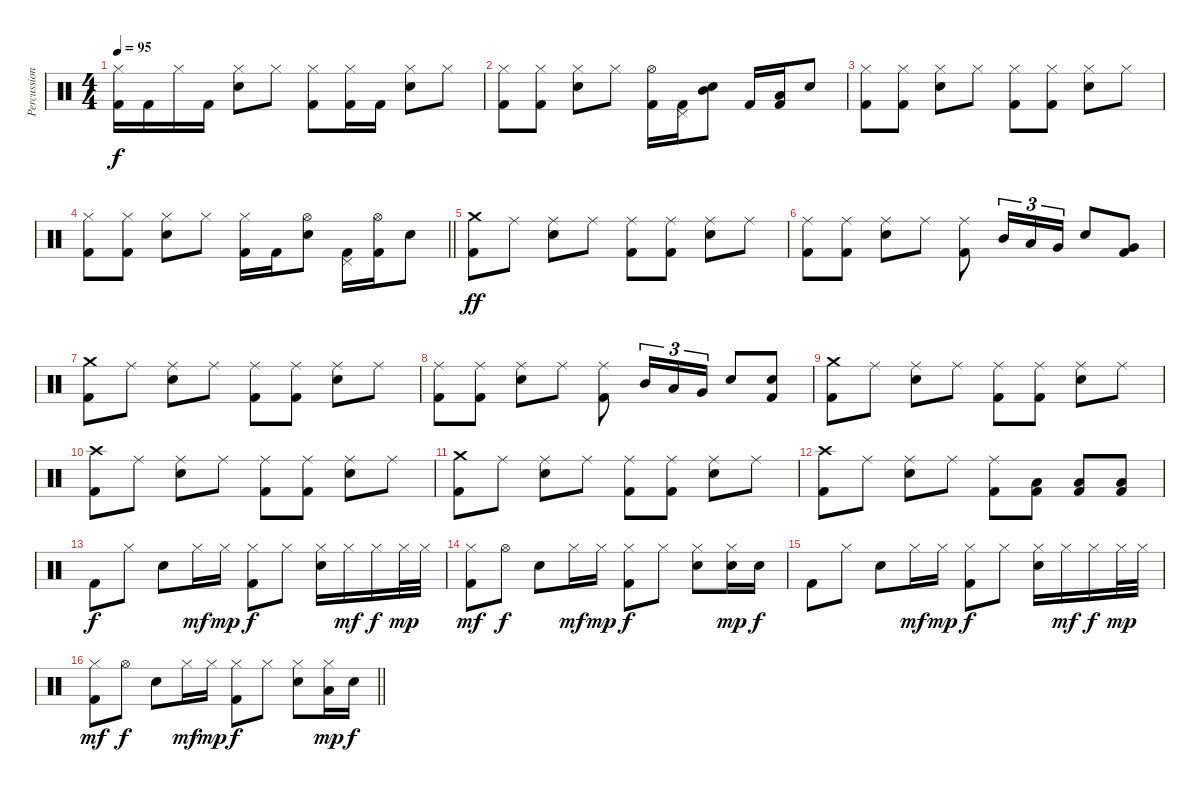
\track ("Percussion" "Percussion") {instrument percussion}
\staff {score}
\articulation defaults
\ts (4 4)
\tempo 95
\clef neutral
\ks c
("Hi-Hat (closed)" "Kick (hit) 2").16{dy f} "Kick (hit) 2".16 "Hi-Hat (closed)".16 "Kick (hit) 2".16 ("Hi-Hat (closed)" "Snare (hit) 2").8 "Hi-Hat (closed)".8 ("Hi-Hat (closed)" "Kick (hit) 2").8 ("Hi-Hat (closed)" "Kick (hit) 2").16 "Kick (hit) 2".16 ("Hi-Hat (closed)" "Snare (hit) 2").8 "Hi-Hat (closed)".8 |
("Hi-Hat (closed)" "Kick (hit) 2").8 ("Hi-Hat (closed)" "Kick (hit) 2").8 ("Hi-Hat (closed)" "Snare (hit) 2").8 "Hi-Hat (closed)".8 ("Hi-Hat (open)" "Kick (hit) 2").16 ("Pedal Hi-Hat (hit)" "Kick (hit) 2").16 ("Mid Tom (hit)" "Snare (hit) 2").8 "Kick (hit) 2".16 ("Low Tom (hit)" "Kick (hit) 2").16 "Snare (hit) 2".8 |
("Hi-Hat (closed)" "Kick (hit) 2").8 ("Hi-Hat (closed)" "Kick (hit) 2").8 ("Hi-Hat (closed)" "Snare (hit) 2").8 "Hi-Hat (closed)".8 ("Hi-Hat (closed)" "Kick (hit) 2").8 ("Hi-Hat (closed)" "Kick (hit) 2").8 ("Hi-Hat (closed)" "Snare (hit) 2").8 "Hi-Hat (closed)".8 |
\barLineRight lightlight
("Hi-Hat (closed)" "Kick (hit) 2").8 ("Hi-Hat (closed)" "Kick (hit) 2").8 ("Hi-Hat (closed)" "Snare (hit) 2").8 "Hi-Hat (closed)".8 ("Hi-Hat (closed)" "Kick (hit) 2").16 "Kick (hit) 2".16 ("Hi-Hat (open)" "Snare (hit) 2").8 ("Pedal Hi-Hat (hit)" "Kick (hit) 2").16 ("Hi-Hat (open)" "Kick (hit) 2").16 "Snare (hit) 2".8 |
("Crash medium (hit)" "Kick (hit) 2").8{dy ff} "Ride (middle)".8 ("Ride (middle)" "Snare (hit) 2").8 "Ride (middle)".8 ("Ride (middle)" "Kick (hit) 2").8 ("Ride (middle)" "Kick (hit) 2").8 ("Ride (middle)" "Snare (hit) 2").8 "Ride (middle)".8 |
("Ride (middle)" "Kick (hit) 2").8 ("Ride (middle)" "Kick (hit) 2").8 ("Ride (middle)" "Snare (hit) 2").8 "Ride (middle)".8 ("Ride (middle)" "Kick (hit) 2").8 "Mid Tom (hit)".16{tu (3 2)} "Low Tom (hit)".16{tu (3 2)} "Very Low Tom (hit)".16{tu (3 2)} "Snare (hit) 2".8 ("Very Low Tom (hit)" "Kick (hit) 2").8 |
("Crash medium (hit)" "Kick (hit) 2").8 "Ride (middle)".8 ("Ride (middle)" "Snare (hit) 2").8 "Ride (middle)".8 ("Ride (middle)" "Kick (hit) 2").8 ("Ride (middle)" "Kick (hit) 2").8 ("Ride (middle)" "Snare (hit) 2").8 "Ride (middle)".8 |
("Ride (middle)" "Kick (hit) 2").8 ("Ride (middle)" "Kick (hit) 2").8 ("Ride (middle)" "Snare (hit) 2").8 "Ride (middle)".8 ("Ride (middle)" "Kick (hit) 2").8 "Mid Tom (hit)".16{tu (3 2)} "Low Tom (hit)".16{tu (3 2)} "Very Low Tom (hit)".16{tu (3 2)} "Snare (hit) 2".8 ("Snare (hit) 2" "Kick (hit) 2").8 |
("Crash medium (hit)" "Kick (hit) 2").8 "Ride (middle)".8 ("Ride (middle)" "Snare (hit) 2").8 "Ride (middle)".8 ("Ride (middle)" "Kick (hit) 2").8 ("Ride (middle)" "Kick (hit) 2").8 ("Ride (middle)" "Snare (hit) 2").8 "Ride (middle)".8 |
("Crash high (hit)" "Kick (hit) 2").8 "Ride (middle)".8 ("Ride (middle)" "Snare (hit) 2").8 "Ride (middle)".8 ("Ride (middle)" "Kick (hit) 2").8 ("Ride (middle)" "Kick (hit) 2").8 ("Ride (middle)" "Snare (hit) 2").8 "Ride (middle)".8 |
("Crash medium (hit)" "Kick (hit) 2").8 "Ride (middle)".8 ("Ride (middle)" "Snare (hit) 2").8 "Ride (middle)".8 ("Ride (middle)" "Kick (hit) 2").8 ("Ride (middle)" "Kick (hit) 2").8 ("Ride (middle)" "Snare (hit) 2").8 "Ride (middle)".8 |
("Crash high (hit)" "Kick (hit) 2").8 "Ride (middle)".8 ("Ride (middle)" "Snare (hit) 2").8 "Ride (middle)".8 ("Ride (middle)" "Kick (hit) 2").8 ("Low Tom (hit)" "Kick (hit) 2").8 ("Low Tom (hit)" "Kick (hit) 2").8 ("Low Tom (hit)" "Kick (hit) 2").8 |
"Kick (hit) 2".8{dy f} "Hi-Hat (closed)".8 "Snare (hit) 2".8 "Hi-Hat (closed)".16{dy mf} "Hi-Hat (closed)".16{dy mp} ("Hi-Hat (closed)" "Kick (hit) 2").8{dy f} "Hi-Hat (closed)".8 ("Hi-Hat (closed)" "Snare (hit) 2").16 "Hi-Hat (closed)".16{dy mf} "Hi-Hat (closed)".16{dy f} "Hi-Hat (closed)".32{dy mp} "Hi-Hat (closed)".32 |
("Hi-Hat (closed)" "Kick (hit) 2").8{dy mf} "Hi-Hat (open)".8{dy f} "Snare (hit) 2".8 "Hi-Hat (closed)".16{dy mf} "Hi-Hat (closed)".16{dy mp} ("Hi-Hat (closed)" "Kick (hit) 2").8{dy f} "Hi-Hat (closed)".8 ("Hi-Hat (closed)" "Snare (hit) 2").8 ("Hi-Hat (closed)" "Snare (hit) 2").16{dy mp} "Snare (hit) 2".16{dy f} |
"Kick (hit) 2".8 "Hi-Hat (closed)".8 "Snare (hit) 2".8 "Hi-Hat (closed)".16{dy mf} "Hi-Hat (closed)".16{dy mp} ("Hi-Hat (closed)" "Kick (hit) 2").8{dy f} "Hi-Hat (closed)".8 ("Hi-Hat (closed)" "Snare (hit) 2").16 "Hi-Hat (closed)".16{dy mf} "Hi-Hat (closed)".16{dy f} "Hi-Hat (closed)".32{dy mp} "Hi-Hat (closed)".32 |
\barLineRight lightlight
("Hi-Hat (closed)" "Kick (hit) 2").8{dy mf} "Hi-Hat (open)".8{dy f} "Snare (hit) 2".8 "Hi-Hat (closed)".16{dy mf} "Hi-Hat (closed)".16{dy mp} ("Hi-Hat (closed)" "Kick (hit) 2").8{dy f} "Hi-Hat (closed)".8 ("Hi-Hat (closed)" "Snare (hit) 2").8 ("Hi-Hat (closed)" "Low Tom (hit)").16{dy mp} "Snare (hit) 2".16{dy f}
